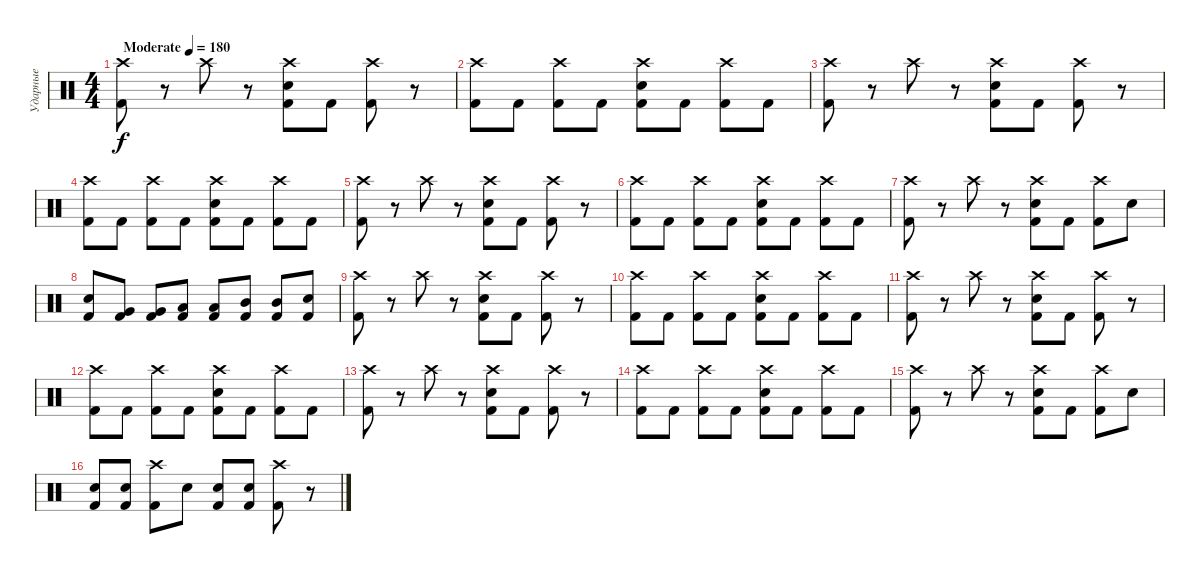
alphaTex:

\track ("Ударные" "Ударные") {instrument percussion}
\staff {score}
\articulation defaults
\ts (4 4)
\tempo (180 "Moderate")
\clef neutral
\ks c
("Crash high (hit)" "Kick (hit) 2").8{dy f} r.8 "Crash high (hit)".8 r.8 ("Crash high (hit)" "Electric Snare (hit)" "Kick (hit) 2").8 "Kick (hit) 2".8 ("Crash high (hit)" "Kick (hit) 2").8 r.8 |
("Crash high (hit)" "Kick (hit) 2").8 "Kick (hit) 2".8 ("Crash high (hit)" "Kick (hit) 2").8 "Kick (hit) 2".8 ("Crash high (hit)" "Electric Snare (hit)" "Kick (hit) 2").8 "Kick (hit) 2".8 ("Crash high (hit)" "Kick (hit) 2").8 "Kick (hit) 2".8 |
("Crash high (hit)" "Kick (hit) 2").8 r.8 "Crash high (hit)".8 r.8 ("Crash high (hit)" "Electric Snare (hit)" "Kick (hit) 2").8 "Kick (hit) 2".8 ("Crash high (hit)" "Kick (hit) 2").8 r.8 |
("Crash high (hit)" "Kick (hit) 2").8 "Kick (hit) 2".8 ("Crash high (hit)" "Kick (hit) 2").8 "Kick (hit) 2".8 ("Crash high (hit)" "Electric Snare (hit)" "Kick (hit) 2").8 "Kick (hit) 2".8 ("Crash high (hit)" "Kick (hit) 2").8 "Kick (hit) 2".8 |
("Crash high (hit)" "Kick (hit) 2").8 r.8 "Crash high (hit)".8 r.8 ("Crash high (hit)" "Electric Snare (hit)" "Kick (hit) 2").8 "Kick (hit) 2".8 ("Crash high (hit)" "Kick (hit) 2").8 r.8 |
("Crash high (hit)" "Kick (hit) 2").8 "Kick (hit) 2".8 ("Crash high (hit)" "Kick (hit) 2").8 "Kick (hit) 2".8 ("Crash high (hit)" "Electric Snare (hit)" "Kick (hit) 2").8 "Kick (hit) 2".8 ("Crash high (hit)" "Kick (hit) 2").8 "Kick (hit) 2".8 |
("Crash high (hit)" "Kick (hit) 2").8 r.8 "Crash high (hit)".8 r.8 ("Crash high (hit)" "Electric Snare (hit)" "Kick (hit) 2").8 "Kick (hit) 2".8 ("Crash high (hit)" "Kick (hit) 2").8 "Electric Snare (hit)".8 |
("Electric Snare (hit)" "Kick (hit) 2").8 ("Very Low Tom (hit)" "Kick (hit) 2").8 ("Very Low Tom (hit)" "Kick (hit) 2").8 ("Low Tom (hit)" "Kick (hit) 2").8 ("Low Tom (hit)" "Kick (hit) 2").8 ("Mid Tom (hit)" "Kick (hit) 2").8 ("Mid Tom (hit)" "Kick (hit) 2").8 ("Electric Snare (hit)" "Kick (hit) 2").8 |
("Crash high (hit)" "Kick (hit) 2").8 r.8 "Crash high (hit)".8 r.8 ("Crash high (hit)" "Electric Snare (hit)" "Kick (hit) 2").8 "Kick (hit) 2".8 ("Crash high (hit)" "Kick (hit) 2").8 r.8 |
("Crash high (hit)" "Kick (hit) 2").8 "Kick (hit) 2".8 ("Crash high (hit)" "Kick (hit) 2").8 "Kick (hit) 2".8 ("Crash high (hit)" "Electric Snare (hit)" "Kick (hit) 2").8 "Kick (hit) 2".8 ("Crash high (hit)" "Kick (hit) 2").8 "Kick (hit) 2".8 |
("Crash high (hit)" "Kick (hit) 2").8 r.8 "Crash high (hit)".8 r.8 ("Crash high (hit)" "Electric Snare (hit)" "Kick (hit) 2").8 "Kick (hit) 2".8 ("Crash high (hit)" "Kick (hit) 2").8 r.8 |
("Crash high (hit)" "Kick (hit) 2").8 "Kick (hit) 2".8 ("Crash high (hit)" "Kick (hit) 2").8 "Kick (hit) 2".8 ("Crash high (hit)" "Electric Snare (hit)" "Kick (hit) 2").8 "Kick (hit) 2".8 ("Crash high (hit)" "Kick (hit) 2").8 "Kick (hit) 2".8 |
("Crash high (hit)" "Kick (hit) 2").8 r.8 "Crash high (hit)".8 r.8 ("Crash high (hit)" "Electric Snare (hit)" "Kick (hit) 2").8 "Kick (hit) 2".8 ("Crash high (hit)" "Kick (hit) 2").8 r.8 |
("Crash high (hit)" "Kick (hit) 2").8 "Kick (hit) 2".8 ("Crash high (hit)" "Kick (hit) 2").8 "Kick (hit) 2".8 ("Crash high (hit)" "Electric Snare (hit)" "Kick (hit) 2").8 "Kick (hit) 2".8 ("Crash high (hit)" "Kick (hit) 2").8 "Kick (hit) 2".8 |
("Crash high (hit)" "Kick (hit) 2").8 r.8 "Crash high (hit)".8 r.8 ("Crash high (hit)" "Electric Snare (hit)" "Kick (hit) 2").8 "Kick (hit) 2".8 ("Crash high (hit)" "Kick (hit) 2").8 "Electric Snare (hit)".8 |
("Electric Snare (hit)" "Kick (hit) 2").8 ("Electric Snare (hit)" "Kick (hit) 2").8 ("Crash high (hit)" "Kick (hit) 2").8 "Electric Snare (hit)".8 ("Electric Snare (hit)" "Kick (hit) 2").8 ("Electric Snare (hit)" "Kick (hit) 2").8 ("Crash high (hit)" "Kick (hit) 2").8 r.8
